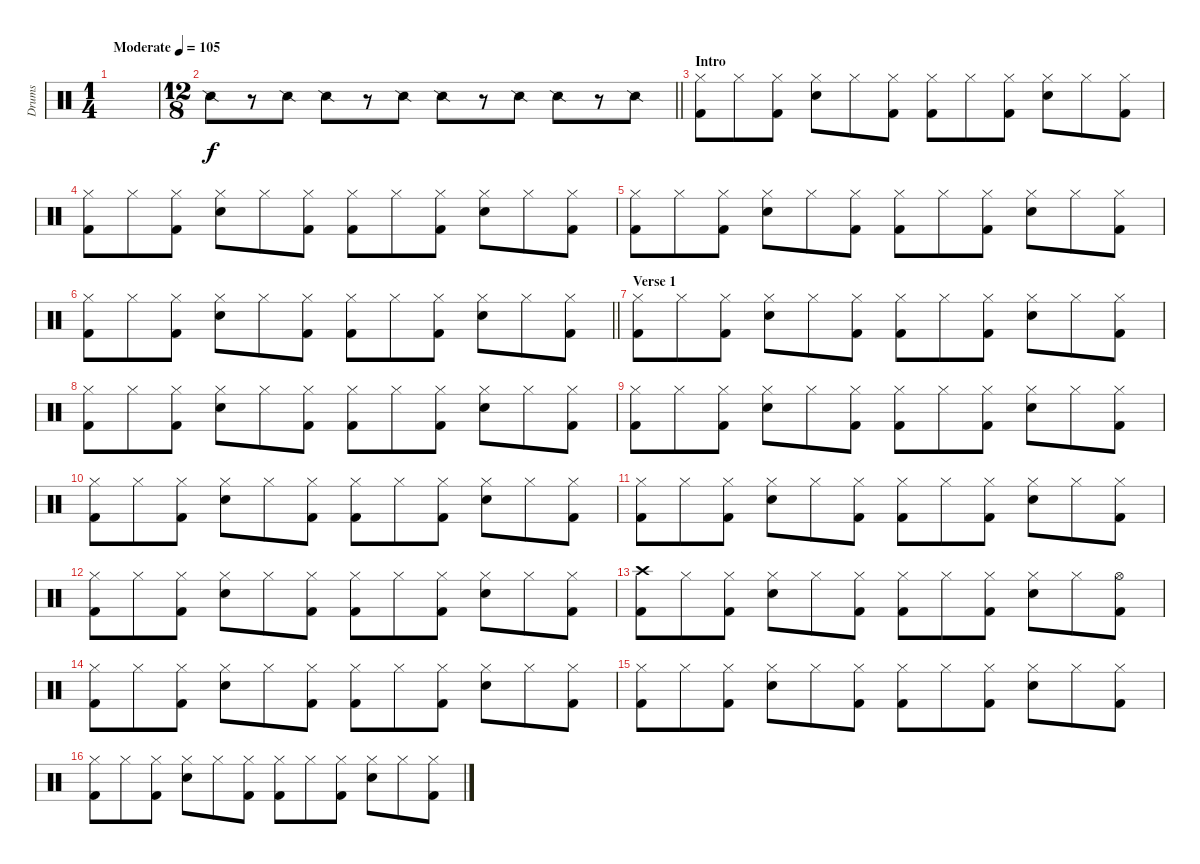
\track ("Drums" "Drums") {instrument percussion}
\staff {score}
\articulation defaults
\ts (1 4)
\tempo (105 "Moderate")
\clef neutral
\ks c
|
\ts (12 8)
\barLineRight lightlight "Snare (side stick) 2".8
r.8 "Snare (side stick) 2".8 "Snare (side stick) 2".8 r.8 "Snare (side stick) 2".8 "Snare (side stick) 2".8 r.8 "Snare (side stick) 2".8 "Snare (side stick) 2".8 r.8 "Snare (side stick) 2".8 |
\section ("" "Intro")
("Hi-Hat (closed)" "Kick (hit) 2").8 "Hi-Hat (closed)".8 ("Hi-Hat (closed)" "Kick (hit) 2").8 ("Hi-Hat (closed)" "Snare (hit) 2").8 "Hi-Hat (closed)".8 ("Hi-Hat (closed)" "Kick (hit) 2").8 ("Hi-Hat (closed)" "Kick (hit) 2").8 "Hi-Hat (closed)".8 ("Hi-Hat (closed)" "Kick (hit) 2").8 ("Hi-Hat (closed)" "Snare (hit) 2").8 "Hi-Hat (closed)".8 ("Hi-Hat (closed)" "Kick (hit) 2").8 |
("Hi-Hat (closed)" "Kick (hit) 2").8 "Hi-Hat (closed)".8 ("Hi-Hat (closed)" "Kick (hit) 2").8 ("Hi-Hat (closed)" "Snare (hit) 2").8 "Hi-Hat (closed)".8 ("Hi-Hat (closed)" "Kick (hit) 2").8 ("Hi-Hat (closed)" "Kick (hit) 2").8 "Hi-Hat (closed)".8 ("Hi-Hat (closed)" "Kick (hit) 2").8 ("Hi-Hat (closed)" "Snare (hit) 2").8 "Hi-Hat (closed)".8 ("Hi-Hat (closed)" "Kick (hit) 2").8 |
("Hi-Hat (closed)" "Kick (hit) 2").8 "Hi-Hat (closed)".8 ("Hi-Hat (closed)" "Kick (hit) 2").8 ("Hi-Hat (closed)" "Snare (hit) 2").8 "Hi-Hat (closed)".8 ("Hi-Hat (closed)" "Kick (hit) 2").8 ("Hi-Hat (closed)" "Kick (hit) 2").8 "Hi-Hat (closed)".8 ("Hi-Hat (closed)" "Kick (hit) 2").8 ("Hi-Hat (closed)" "Snare (hit) 2").8 "Hi-Hat (closed)".8 ("Hi-Hat (closed)" "Kick (hit) 2").8 |
\barLineRight lightlight
("Hi-Hat (closed)" "Kick (hit) 2").8 "Hi-Hat (closed)".8 ("Hi-Hat (closed)" "Kick (hit) 2").8 ("Hi-Hat (closed)" "Snare (hit) 2").8 "Hi-Hat (closed)".8 ("Hi-Hat (closed)" "Kick (hit) 2").8 ("Hi-Hat (closed)" "Kick (hit) 2").8 "Hi-Hat (closed)".8 ("Hi-Hat (closed)" "Kick (hit) 2").8 ("Hi-Hat (closed)" "Snare (hit) 2").8 "Hi-Hat (closed)".8 ("Hi-Hat (closed)" "Kick (hit) 2").8 |
\section ("" "Verse 1")
("Hi-Hat (closed)" "Kick (hit) 2").8 "Hi-Hat (closed)".8 ("Hi-Hat (closed)" "Kick (hit) 2").8 ("Hi-Hat (closed)" "Snare (hit) 2").8 "Hi-Hat (closed)".8 ("Hi-Hat (closed)" "Kick (hit) 2").8 ("Hi-Hat (closed)" "Kick (hit) 2").8 "Hi-Hat (closed)".8 ("Hi-Hat (closed)" "Kick (hit) 2").8 ("Hi-Hat (closed)" "Snare (hit) 2").8 "Hi-Hat (closed)".8 ("Hi-Hat (closed)" "Kick (hit) 2").8 |
("Hi-Hat (closed)" "Kick (hit) 2").8 "Hi-Hat (closed)".8 ("Hi-Hat (closed)" "Kick (hit) 2").8 ("Hi-Hat (closed)" "Snare (hit) 2").8 "Hi-Hat (closed)".8 ("Hi-Hat (closed)" "Kick (hit) 2").8 ("Hi-Hat (closed)" "Kick (hit) 2").8 "Hi-Hat (closed)".8 ("Hi-Hat (closed)" "Kick (hit) 2").8 ("Hi-Hat (closed)" "Snare (hit) 2").8 "Hi-Hat (closed)".8 ("Hi-Hat (closed)" "Kick (hit) 2").8 |
("Hi-Hat (closed)" "Kick (hit) 2").8 "Hi-Hat (closed)".8 ("Hi-Hat (closed)" "Kick (hit) 2").8 ("Hi-Hat (closed)" "Snare (hit) 2").8 "Hi-Hat (closed)".8 ("Hi-Hat (closed)" "Kick (hit) 2").8 ("Hi-Hat (closed)" "Kick (hit) 2").8 "Hi-Hat (closed)".8 ("Hi-Hat (closed)" "Kick (hit) 2").8 ("Hi-Hat (closed)" "Snare (hit) 2").8 "Hi-Hat (closed)".8 ("Hi-Hat (closed)" "Kick (hit) 2").8 |
("Hi-Hat (closed)" "Kick (hit) 2").8 "Hi-Hat (closed)".8 ("Hi-Hat (closed)" "Kick (hit) 2").8 ("Hi-Hat (closed)" "Snare (hit) 2").8 "Hi-Hat (closed)".8 ("Hi-Hat (closed)" "Kick (hit) 2").8 ("Hi-Hat (closed)" "Kick (hit) 2").8 "Hi-Hat (closed)".8 ("Hi-Hat (closed)" "Kick (hit) 2").8 ("Hi-Hat (closed)" "Snare (hit) 2").8 "Hi-Hat (closed)".8 ("Hi-Hat (closed)" "Kick (hit) 2").8 |
("Hi-Hat (closed)" "Kick (hit) 2").8 "Hi-Hat (closed)".8 ("Hi-Hat (closed)" "Kick (hit) 2").8 ("Hi-Hat (closed)" "Snare (hit) 2").8 "Hi-Hat (closed)".8 ("Hi-Hat (closed)" "Kick (hit) 2").8 ("Hi-Hat (closed)" "Kick (hit) 2").8 "Hi-Hat (closed)".8 ("Hi-Hat (closed)" "Kick (hit) 2").8 ("Hi-Hat (closed)" "Snare (hit) 2").8 "Hi-Hat (closed)".8 ("Hi-Hat (closed)" "Kick (hit) 2").8 |
("Hi-Hat (closed)" "Kick (hit) 2").8 "Hi-Hat (closed)".8 ("Hi-Hat (closed)" "Kick (hit) 2").8 ("Hi-Hat (closed)" "Snare (hit) 2").8 "Hi-Hat (closed)".8 ("Hi-Hat (closed)" "Kick (hit) 2").8 ("Hi-Hat (closed)" "Kick (hit) 2").8 "Hi-Hat (closed)".8 ("Hi-Hat (closed)" "Kick (hit) 2").8 ("Hi-Hat (closed)" "Snare (hit) 2").8 "Hi-Hat (closed)".8 ("Hi-Hat (closed)" "Kick (hit) 2").8 |
("Crash high (hit)" "Kick (hit) 2").8 "Hi-Hat (closed)".8 ("Hi-Hat (closed)" "Kick (hit) 2").8 ("Hi-Hat (closed)" "Snare (hit) 2").8 "Hi-Hat (closed)".8 ("Hi-Hat (closed)" "Kick (hit) 2").8 ("Hi-Hat (closed)" "Kick (hit) 2").8 "Hi-Hat (closed)".8 ("Hi-Hat (closed)" "Kick (hit) 2").8 ("Hi-Hat (closed)" "Snare (hit) 2").8 "Hi-Hat (closed)".8 ("Hi-Hat (open)" "Kick (hit) 2").8 |
("Hi-Hat (closed)" "Kick (hit) 2").8 "Hi-Hat (closed)".8 ("Hi-Hat (closed)" "Kick (hit) 2").8 ("Hi-Hat (closed)" "Snare (hit) 2").8 "Hi-Hat (closed)".8 ("Hi-Hat (closed)" "Kick (hit) 2").8 ("Hi-Hat (closed)" "Kick (hit) 2").8 "Hi-Hat (closed)".8 ("Hi-Hat (closed)" "Kick (hit) 2").8 ("Hi-Hat (closed)" "Snare (hit) 2").8 "Hi-Hat (closed)".8 ("Hi-Hat (closed)" "Kick (hit) 2").8 |
("Hi-Hat (closed)" "Kick (hit) 2").8 "Hi-Hat (closed)".8 ("Hi-Hat (closed)" "Kick (hit) 2").8 ("Hi-Hat (closed)" "Snare (hit) 2").8 "Hi-Hat (closed)".8 ("Hi-Hat (closed)" "Kick (hit) 2").8 ("Hi-Hat (closed)" "Kick (hit) 2").8 "Hi-Hat (closed)".8 ("Hi-Hat (closed)" "Kick (hit) 2").8 ("Hi-Hat (closed)" "Snare (hit) 2").8 "Hi-Hat (closed)".8 ("Hi-Hat (closed)" "Kick (hit) 2").8 |
("Hi-Hat (closed)" "Kick (hit) 2").8 "Hi-Hat (closed)".8 ("Hi-Hat (closed)" "Kick (hit) 2").8 ("Hi-Hat (closed)" "Snare (hit) 2").8 "Hi-Hat (closed)".8 ("Hi-Hat (closed)" "Kick (hit) 2").8 ("Hi-Hat (closed)" "Kick (hit) 2").8 "Hi-Hat (closed)".8 ("Hi-Hat (closed)" "Kick (hit) 2").8 ("Hi-Hat (closed)" "Snare (hit) 2").8 "Hi-Hat (closed)".8 ("Hi-Hat (closed)" "Kick (hit) 2").8
